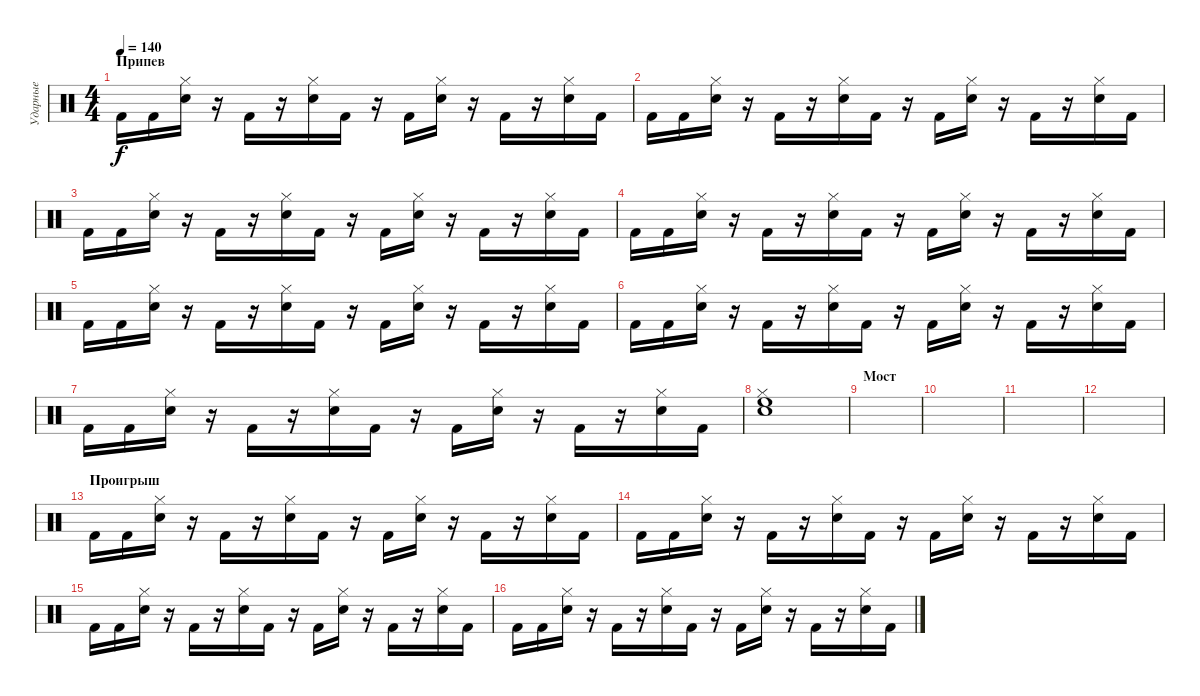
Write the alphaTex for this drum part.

\track ("Ударные" "Ударные") {instrument percussion}
\staff {score}
\articulation defaults
\ts (4 4)
\section ("" "Припев")
\tempo 140
\clef neutral
\ks c "Kick (hit) 2".16{dy f} "Kick (hit) 2".16
("Snare (hit) 2" "Hi-Hat (closed)").16 r.16 "Kick (hit) 2".16 r.16 ("Snare (hit) 2" "Hi-Hat (closed)").16 "Kick (hit) 2".16 r.16 "Kick (hit) 2".16 ("Snare (hit) 2" "Hi-Hat (closed)").16 r.16 "Kick (hit) 2".16 r.16 ("Snare (hit) 2" "Hi-Hat (closed)").16 "Kick (hit) 2".16 |
"Kick (hit) 2".16 "Kick (hit) 2".16 ("Snare (hit) 2" "Hi-Hat (closed)").16 r.16 "Kick (hit) 2".16 r.16 ("Snare (hit) 2" "Hi-Hat (closed)").16 "Kick (hit) 2".16 r.16 "Kick (hit) 2".16 ("Snare (hit) 2" "Hi-Hat (closed)").16 r.16 "Kick (hit) 2".16 r.16 ("Snare (hit) 2" "Hi-Hat (closed)").16 "Kick (hit) 2".16 |
"Kick (hit) 2".16 "Kick (hit) 2".16 ("Snare (hit) 2" "Hi-Hat (closed)").16 r.16 "Kick (hit) 2".16 r.16 ("Snare (hit) 2" "Hi-Hat (closed)").16 "Kick (hit) 2".16 r.16 "Kick (hit) 2".16 ("Snare (hit) 2" "Hi-Hat (closed)").16 r.16 "Kick (hit) 2".16 r.16 ("Snare (hit) 2" "Hi-Hat (closed)").16 "Kick (hit) 2".16 |
"Kick (hit) 2".16{volume 14} "Kick (hit) 2".16 ("Snare (hit) 2" "Hi-Hat (closed)").16 r.16 "Kick (hit) 2".16 r.16 ("Snare (hit) 2" "Hi-Hat (closed)").16 "Kick (hit) 2".16 r.16 "Kick (hit) 2".16 ("Snare (hit) 2" "Hi-Hat (closed)").16 r.16 "Kick (hit) 2".16 r.16 ("Snare (hit) 2" "Hi-Hat (closed)").16 "Kick (hit) 2".16 |
"Kick (hit) 2".16{volume 14} "Kick (hit) 2".16 ("Snare (hit) 2" "Hi-Hat (closed)").16 r.16 "Kick (hit) 2".16 r.16 ("Snare (hit) 2" "Hi-Hat (closed)").16 "Kick (hit) 2".16 r.16 "Kick (hit) 2".16 ("Snare (hit) 2" "Hi-Hat (closed)").16 r.16 "Kick (hit) 2".16 r.16 ("Snare (hit) 2" "Hi-Hat (closed)").16 "Kick (hit) 2".16 |
"Kick (hit) 2".16{volume 14} "Kick (hit) 2".16 ("Snare (hit) 2" "Hi-Hat (closed)").16 r.16 "Kick (hit) 2".16 r.16 ("Snare (hit) 2" "Hi-Hat (closed)").16 "Kick (hit) 2".16 r.16 "Kick (hit) 2".16 ("Snare (hit) 2" "Hi-Hat (closed)").16 r.16 "Kick (hit) 2".16 r.16 ("Snare (hit) 2" "Hi-Hat (closed)").16 "Kick (hit) 2".16 |
"Kick (hit) 2".16{volume 14} "Kick (hit) 2".16 ("Snare (hit) 2" "Hi-Hat (closed)").16 r.16 "Kick (hit) 2".16 r.16 ("Snare (hit) 2" "Hi-Hat (closed)").16 "Kick (hit) 2".16 r.16 "Kick (hit) 2".16 ("Snare (hit) 2" "Hi-Hat (closed)").16 r.16 "Kick (hit) 2".16 r.16 ("Snare (hit) 2" "Hi-Hat (closed)").16 "Kick (hit) 2".16 |
("High Floor Tom (hit)" "Snare (hit) 2" "Hi-Hat (closed)").1 |
\section ("" "Мост")
|
|
|
|
\section ("" "Проигрыш")
"Kick (hit) 2".16{volume 16} "Kick (hit) 2".16 ("Snare (hit) 2" "Hi-Hat (closed)").16 r.16 "Kick (hit) 2".16 r.16 ("Snare (hit) 2" "Hi-Hat (closed)").16 "Kick (hit) 2".16 r.16 "Kick (hit) 2".16 ("Snare (hit) 2" "Hi-Hat (closed)").16 r.16 "Kick (hit) 2".16 r.16 ("Snare (hit) 2" "Hi-Hat (closed)").16 "Kick (hit) 2".16 |
"Kick (hit) 2".16 "Kick (hit) 2".16 ("Snare (hit) 2" "Hi-Hat (closed)").16 r.16 "Kick (hit) 2".16 r.16 ("Snare (hit) 2" "Hi-Hat (closed)").16 "Kick (hit) 2".16 r.16 "Kick (hit) 2".16 ("Snare (hit) 2" "Hi-Hat (closed)").16 r.16 "Kick (hit) 2".16 r.16 ("Snare (hit) 2" "Hi-Hat (closed)").16 "Kick (hit) 2".16 |
"Kick (hit) 2".16 "Kick (hit) 2".16 ("Snare (hit) 2" "Hi-Hat (closed)").16 r.16 "Kick (hit) 2".16 r.16 ("Snare (hit) 2" "Hi-Hat (closed)").16 "Kick (hit) 2".16 r.16 "Kick (hit) 2".16 ("Snare (hit) 2" "Hi-Hat (closed)").16 r.16 "Kick (hit) 2".16 r.16 ("Snare (hit) 2" "Hi-Hat (closed)").16 "Kick (hit) 2".16 |
"Kick (hit) 2".16 "Kick (hit) 2".16 ("Snare (hit) 2" "Hi-Hat (closed)").16 r.16 "Kick (hit) 2".16 r.16 ("Snare (hit) 2" "Hi-Hat (closed)").16 "Kick (hit) 2".16 r.16 "Kick (hit) 2".16 ("Snare (hit) 2" "Hi-Hat (closed)").16 r.16 "Kick (hit) 2".16 r.16 ("Snare (hit) 2" "Hi-Hat (closed)").16 "Kick (hit) 2".16
